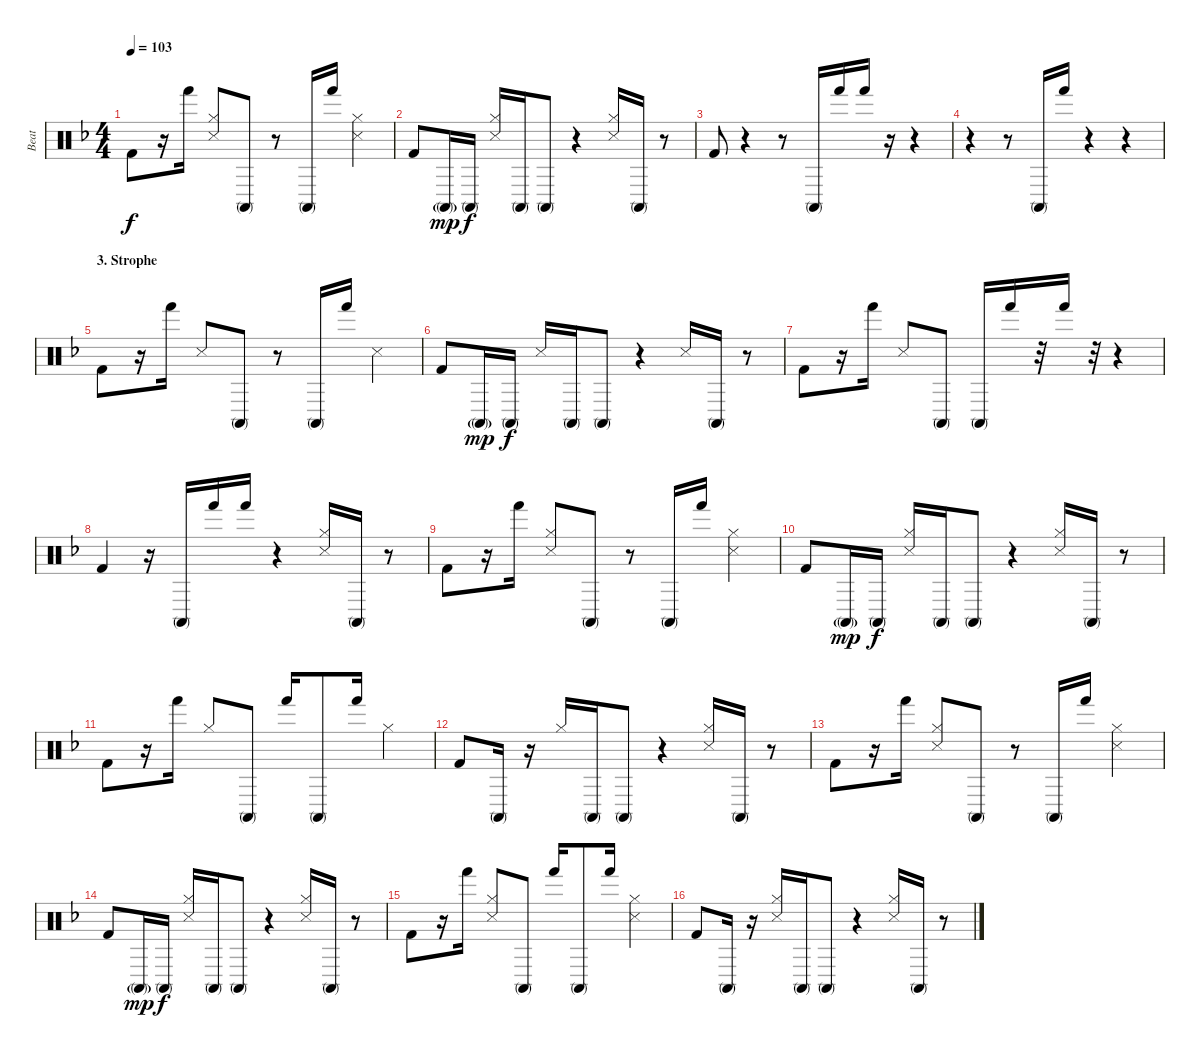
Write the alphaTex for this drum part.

\track ("Beat" "Beat") {instrument percussion}
\staff {score}
\articulation defaults
\ts (4 4)
\tempo 103
\clef neutral
\ks dminor "Kick (hit) 2".8{dy f}
r.16 "Hand (hit)".16 ("Hi-Hat (closed)" "Snare (side stick) 3").8 "Conga high (mute)".8 r.8 "Conga high (mute)".16 "Hand (hit)".16 ("Hi-Hat (closed)" "Snare (side stick) 3").4 |
"Kick (hit) 2".8 "Conga high (mute)"{g}.16{dy mp} "Conga high (mute)".16{dy f} ("Hi-Hat (closed)" "Snare (side stick) 3").16 "Conga high (mute)".16 "Conga high (mute)".8 r.4 ("Hi-Hat (closed)" "Snare (side stick) 3").16 "Conga high (mute)".16 r.8 |
"Kick (hit) 2".8 r.4 r.8 "Conga high (mute)".16 "Hand (hit)".16 "Hand (hit)".16 r.16 r.4 |
r.4 r.8 "Conga high (mute)".16 "Hand (hit)".16 r.4 r.4 |
\section ("" "3. Strophe")
"Kick (hit) 2".8 r.16 "Hand (hit)".16 "Snare (side stick) 3".8 "Conga high (mute)".8 r.8 "Conga high (mute)".16 "Hand (hit)".16 "Snare (side stick) 3".4 |
"Kick (hit) 2".8 "Conga high (mute)"{g}.16{dy mp} "Conga high (mute)".16{dy f} "Snare (side stick) 3".16 "Conga high (mute)".16 "Conga high (mute)".8 r.4 "Snare (side stick) 3".16 "Conga high (mute)".16 r.8 |
"Kick (hit) 2".8 r.16 "Hand (hit)".16 "Snare (side stick) 3".8 "Conga high (mute)".8 "Conga high (mute)".16 "Hand (hit)".16 r.32 "Hand (hit)".16 r.32 r.4 |
"Kick (hit) 2".4 r.16 "Conga high (mute)".16 "Hand (hit)".16 "Hand (hit)".16 r.4 ("Hi-Hat (closed)" "Snare (side stick) 3").16 "Conga high (mute)".16 r.8 |
"Kick (hit) 2".8 r.16 "Hand (hit)".16 ("Hi-Hat (closed)" "Snare (side stick) 3").8 "Conga high (mute)".8 r.8 "Conga high (mute)".16 "Hand (hit)".16 ("Hi-Hat (closed)" "Snare (side stick) 3").4 |
"Kick (hit) 2".8 "Conga high (mute)"{g}.16{dy mp} "Conga high (mute)".16{dy f} ("Hi-Hat (closed)" "Snare (side stick) 3").16 "Conga high (mute)".16 "Conga high (mute)".8 r.4 ("Hi-Hat (closed)" "Snare (side stick) 3").16 "Conga high (mute)".16 r.8 |
"Kick (hit) 2".8 r.16 "Hand (hit)".16 "Hi-Hat (closed)".8 "Conga high (mute)".8 "Hand (hit)".16 "Conga high (mute)".8 "Hand (hit)".16 "Hi-Hat (closed)".4 |
"Kick (hit) 2".8 "Conga high (mute)".16 r.16 "Hi-Hat (closed)".16 "Conga high (mute)".16 "Conga high (mute)".8 r.4 ("Hi-Hat (closed)" "Snare (side stick) 3").16 "Conga high (mute)".16 r.8 |
"Kick (hit) 2".8 r.16 "Hand (hit)".16 ("Hi-Hat (closed)" "Snare (side stick) 3").8 "Conga high (mute)".8 r.8 "Conga high (mute)".16 "Hand (hit)".16 ("Hi-Hat (closed)" "Snare (side stick) 3").4 |
"Kick (hit) 2".8 "Conga high (mute)"{g}.16{dy mp} "Conga high (mute)".16{dy f} ("Hi-Hat (closed)" "Snare (side stick) 3").16 "Conga high (mute)".16 "Conga high (mute)".8 r.4 ("Hi-Hat (closed)" "Snare (side stick) 3").16 "Conga high (mute)".16 r.8 |
"Kick (hit) 2".8 r.16 "Hand (hit)".16 ("Hi-Hat (closed)" "Snare (side stick) 3").8 "Conga high (mute)".8 "Hand (hit)".16 "Conga high (mute)".8 "Hand (hit)".16 ("Hi-Hat (closed)" "Snare (side stick) 3").4 |
"Kick (hit) 2".8 "Conga high (mute)".16 r.16 ("Hi-Hat (closed)" "Snare (side stick) 3").16 "Conga high (mute)".16 "Conga high (mute)".8 r.4 ("Hi-Hat (closed)" "Snare (side stick) 3").16 "Conga high (mute)".16 r.8
